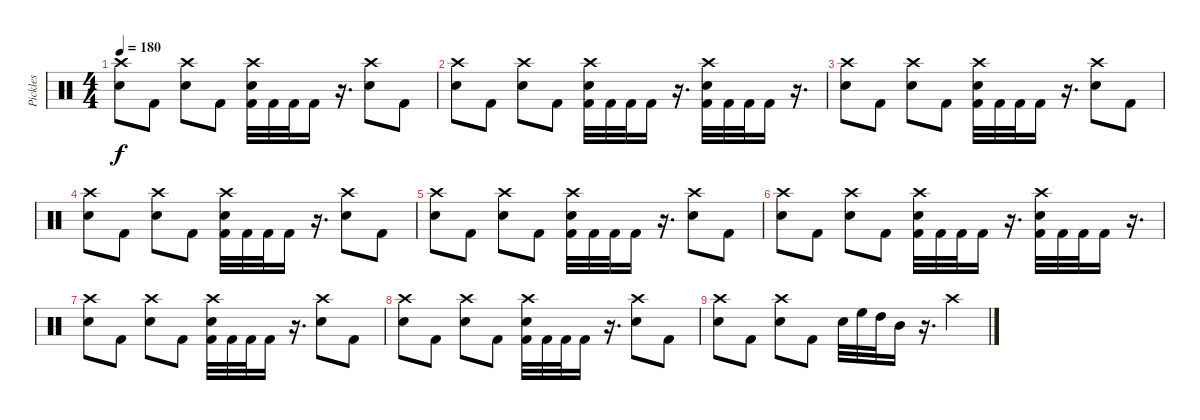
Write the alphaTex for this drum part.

\track ("Pickles" "Pickles") {instrument percussion}
\staff {score}
\articulation defaults
\ts (4 4)
\tempo 180
\clef neutral
\ks c
("Crash high (hit)" "Snare (hit) 2").8{dy f} "Kick (hit) 2".8 ("Crash high (hit)" "Snare (hit) 2").8 "Kick (hit) 2".8 ("Crash high (hit)" "Snare (hit) 2" "Kick (hit) 2").32 "Kick (hit) 2".32 "Kick (hit) 2".32 "Kick (hit) 2".16 r.16{d} ("Crash high (hit)" "Snare (hit) 2").8 "Kick (hit) 2".8 |
("Crash high (hit)" "Snare (hit) 2").8 "Kick (hit) 2".8 ("Crash high (hit)" "Snare (hit) 2").8 "Kick (hit) 2".8 ("Crash high (hit)" "Snare (hit) 2" "Kick (hit) 2").32 "Kick (hit) 2".32 "Kick (hit) 2".32 "Kick (hit) 2".16 r.16{d} ("Crash high (hit)" "Snare (hit) 2" "Kick (hit) 2").32 "Kick (hit) 2".32 "Kick (hit) 2".32 "Kick (hit) 2".16 r.16{d} |
("Crash high (hit)" "Snare (hit) 2").8 "Kick (hit) 2".8 ("Crash high (hit)" "Snare (hit) 2").8 "Kick (hit) 2".8 ("Crash high (hit)" "Snare (hit) 2" "Kick (hit) 2").32 "Kick (hit) 2".32 "Kick (hit) 2".32 "Kick (hit) 2".16 r.16{d} ("Crash high (hit)" "Snare (hit) 2").8 "Kick (hit) 2".8 |
("Crash high (hit)" "Snare (hit) 2").8 "Kick (hit) 2".8 ("Crash high (hit)" "Snare (hit) 2").8 "Kick (hit) 2".8 ("Crash high (hit)" "Snare (hit) 2" "Kick (hit) 2").32 "Kick (hit) 2".32 "Kick (hit) 2".32 "Kick (hit) 2".16 r.16{d} ("Crash high (hit)" "Snare (hit) 2").8 "Kick (hit) 2".8 |
("Crash high (hit)" "Snare (hit) 2").8 "Kick (hit) 2".8 ("Crash high (hit)" "Snare (hit) 2").8 "Kick (hit) 2".8 ("Crash high (hit)" "Snare (hit) 2" "Kick (hit) 2").32 "Kick (hit) 2".32 "Kick (hit) 2".32 "Kick (hit) 2".16 r.16{d} ("Crash high (hit)" "Snare (hit) 2").8 "Kick (hit) 2".8 |
("Crash high (hit)" "Snare (hit) 2").8 "Kick (hit) 2".8 ("Crash high (hit)" "Snare (hit) 2").8 "Kick (hit) 2".8 ("Crash high (hit)" "Snare (hit) 2" "Kick (hit) 2").32 "Kick (hit) 2".32 "Kick (hit) 2".32 "Kick (hit) 2".16 r.16{d} ("Crash high (hit)" "Snare (hit) 2" "Kick (hit) 2").32 "Kick (hit) 2".32 "Kick (hit) 2".32 "Kick (hit) 2".16 r.16{d} |
("Crash high (hit)" "Snare (hit) 2").8 "Kick (hit) 2".8 ("Crash high (hit)" "Snare (hit) 2").8 "Kick (hit) 2".8 ("Crash high (hit)" "Snare (hit) 2" "Kick (hit) 2").32 "Kick (hit) 2".32 "Kick (hit) 2".32 "Kick (hit) 2".16 r.16{d} ("Crash high (hit)" "Snare (hit) 2").8 "Kick (hit) 2".8 |
("Crash high (hit)" "Snare (hit) 2").8 "Kick (hit) 2".8 ("Crash high (hit)" "Snare (hit) 2").8 "Kick (hit) 2".8 ("Crash high (hit)" "Snare (hit) 2" "Kick (hit) 2").32 "Kick (hit) 2".32 "Kick (hit) 2".32 "Kick (hit) 2".16 r.16{d} ("Crash high (hit)" "Snare (hit) 2").8 "Kick (hit) 2".8 |
("Crash high (hit)" "Snare (hit) 2").8 "Kick (hit) 2".8 ("Crash high (hit)" "Snare (hit) 2").8 "Kick (hit) 2".8 "Snare (hit) 2".32 "High Floor Tom (hit)".32 "High Tom (hit)".32 "Mid Tom (hit)".16 r.16{d} "Crash high (hit)".4
